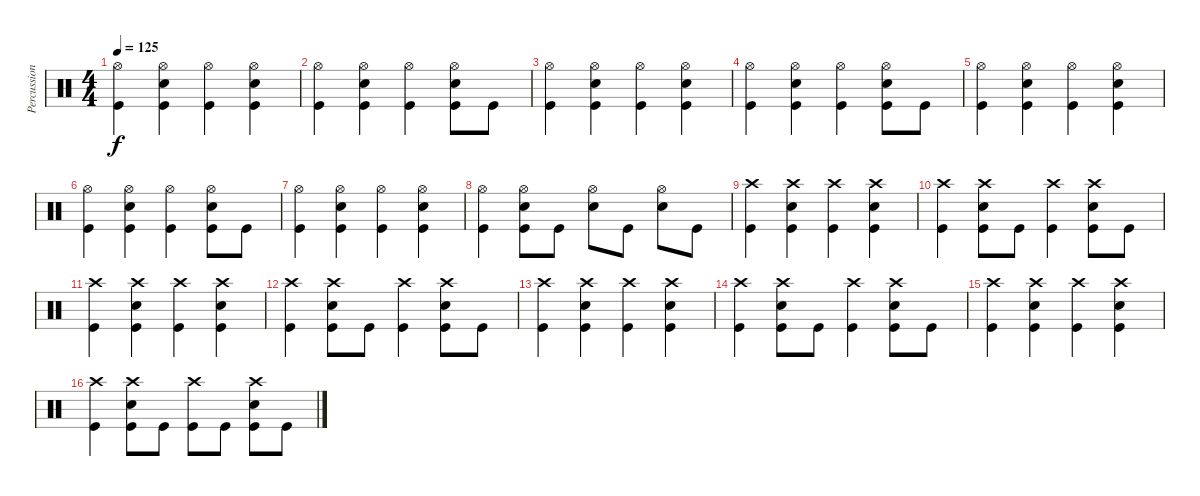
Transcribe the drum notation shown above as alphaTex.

\track ("Percussion" "Percussion") {instrument percussion}
\staff {score}
\articulation defaults
\ts (4 4)
\tempo 125
\clef neutral
\ks c
("Hi-Hat (open)" "Kick (hit)").4{dy f} ("Hi-Hat (open)" "Electric Snare (hit)" "Kick (hit)").4 ("Hi-Hat (open)" "Kick (hit)").4 ("Hi-Hat (open)" "Electric Snare (hit)" "Kick (hit)").4 |
("Hi-Hat (open)" "Kick (hit)").4 ("Hi-Hat (open)" "Electric Snare (hit)" "Kick (hit)").4 ("Hi-Hat (open)" "Kick (hit)").4 ("Hi-Hat (open)" "Electric Snare (hit)" "Kick (hit)").8 "Kick (hit)".8 |
("Hi-Hat (open)" "Kick (hit)").4 ("Hi-Hat (open)" "Electric Snare (hit)" "Kick (hit)").4 ("Hi-Hat (open)" "Kick (hit)").4 ("Hi-Hat (open)" "Electric Snare (hit)" "Kick (hit)").4 |
("Hi-Hat (open)" "Kick (hit)").4 ("Hi-Hat (open)" "Electric Snare (hit)" "Kick (hit)").4 ("Hi-Hat (open)" "Kick (hit)").4 ("Hi-Hat (open)" "Electric Snare (hit)" "Kick (hit)").8 "Kick (hit)".8 |
("Hi-Hat (open)" "Kick (hit)").4 ("Hi-Hat (open)" "Electric Snare (hit)" "Kick (hit)").4 ("Hi-Hat (open)" "Kick (hit)").4 ("Hi-Hat (open)" "Electric Snare (hit)" "Kick (hit)").4 |
("Hi-Hat (open)" "Kick (hit)").4 ("Hi-Hat (open)" "Electric Snare (hit)" "Kick (hit)").4 ("Hi-Hat (open)" "Kick (hit)").4 ("Hi-Hat (open)" "Electric Snare (hit)" "Kick (hit)").8 "Kick (hit)".8 |
("Hi-Hat (open)" "Kick (hit)").4 ("Hi-Hat (open)" "Electric Snare (hit)" "Kick (hit)").4 ("Hi-Hat (open)" "Kick (hit)").4 ("Hi-Hat (open)" "Electric Snare (hit)" "Kick (hit)").4 |
("Hi-Hat (open)" "Kick (hit)").4 ("Hi-Hat (open)" "Electric Snare (hit)" "Kick (hit)").8 "Kick (hit)".8 ("Hi-Hat (open)" "Electric Snare (hit)").8 "Kick (hit)".8 ("Hi-Hat (open)" "Electric Snare (hit)").8 "Kick (hit)".8 |
("Crash high (hit)" "Kick (hit)").4 ("Crash high (hit)" "Electric Snare (hit)" "Kick (hit)").4 ("Crash high (hit)" "Kick (hit)").4 ("Crash high (hit)" "Electric Snare (hit)" "Kick (hit)").4 |
("Crash high (hit)" "Kick (hit)").4 ("Crash high (hit)" "Electric Snare (hit)" "Kick (hit)").8 "Kick (hit)".8 ("Crash high (hit)" "Kick (hit)").4 ("Crash high (hit)" "Electric Snare (hit)" "Kick (hit)").8 "Kick (hit)".8 |
("Crash high (hit)" "Kick (hit)").4 ("Crash high (hit)" "Electric Snare (hit)" "Kick (hit)").4 ("Crash high (hit)" "Kick (hit)").4 ("Crash high (hit)" "Electric Snare (hit)" "Kick (hit)").4 |
("Crash high (hit)" "Kick (hit)").4 ("Crash high (hit)" "Electric Snare (hit)" "Kick (hit)").8 "Kick (hit)".8 ("Crash high (hit)" "Kick (hit)").4 ("Crash high (hit)" "Electric Snare (hit)" "Kick (hit)").8 "Kick (hit)".8 |
("Crash high (hit)" "Kick (hit)").4 ("Crash high (hit)" "Electric Snare (hit)" "Kick (hit)").4 ("Crash high (hit)" "Kick (hit)").4 ("Crash high (hit)" "Electric Snare (hit)" "Kick (hit)").4 |
("Crash high (hit)" "Kick (hit)").4 ("Crash high (hit)" "Electric Snare (hit)" "Kick (hit)").8 "Kick (hit)".8 ("Crash high (hit)" "Kick (hit)").4 ("Crash high (hit)" "Electric Snare (hit)" "Kick (hit)").8 "Kick (hit)".8 |
("Crash high (hit)" "Kick (hit)").4 ("Crash high (hit)" "Electric Snare (hit)" "Kick (hit)").4 ("Crash high (hit)" "Kick (hit)").4 ("Crash high (hit)" "Electric Snare (hit)" "Kick (hit)").4 |
("Crash high (hit)" "Kick (hit)").4 ("Crash high (hit)" "Electric Snare (hit)" "Kick (hit)").8 "Kick (hit)".8 ("Crash high (hit)" "Kick (hit)").8 "Kick (hit)".8 ("Crash high (hit)" "Electric Snare (hit)" "Kick (hit)").8 "Kick (hit)".8
